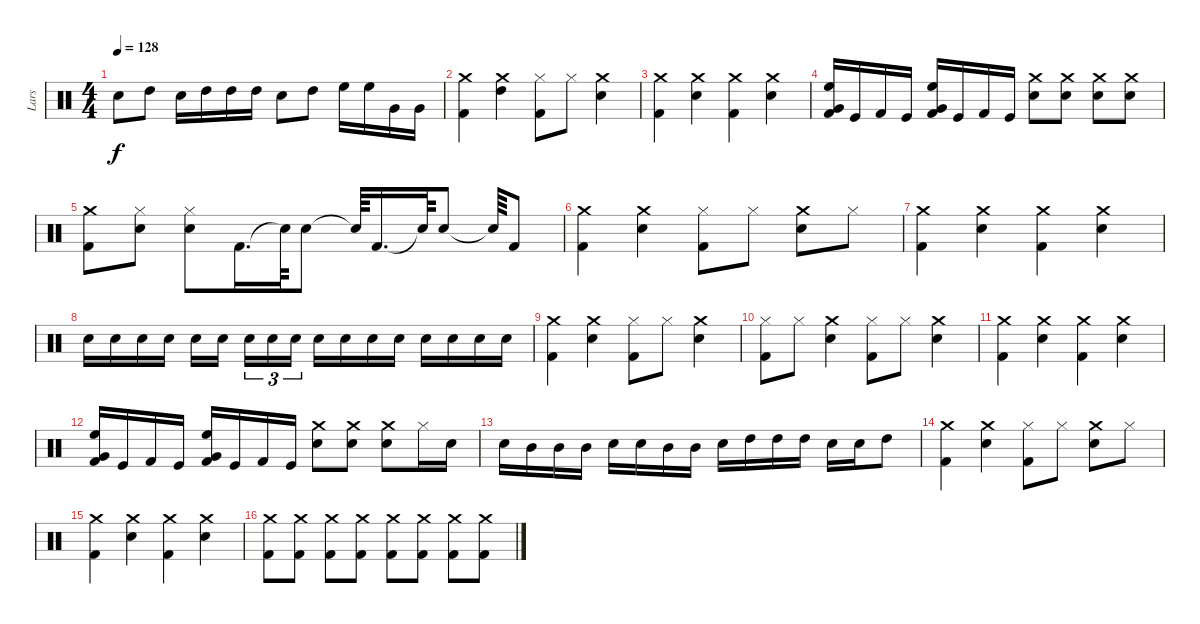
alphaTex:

\track ("Lars" "Lars") {instrument percussion}
\staff {score}
\articulation defaults
\ts (4 4)
\tempo 128
\clef neutral
\ks c "Snare (hit) 2".8{dy f} "High Tom (hit)".8 "Snare (hit) 2".16 "High Tom (hit)".16 "High Tom (hit)".16 "High Tom (hit)".16 "Snare (hit) 2".8 "High Tom (hit)".8 "High Floor Tom (hit)".16 "High Floor Tom (hit)".16 "Very Low Tom (hit)".16 "Very Low Tom (hit)".16
|
("Crash medium (hit)" "Kick (hit) 2").4 ("Crash medium (hit)" "High Tom (hit)").4 ("Kick (hit) 2" "Hi-Hat (closed)").8 "Hi-Hat (closed)".8 ("Crash medium (hit)" "Snare (hit) 2").4 |
("Kick (hit) 2" "Crash medium (hit)").4 ("Snare (hit) 2" "Crash medium (hit)").4 ("Kick (hit) 2" "Crash medium (hit)").4 ("Snare (hit) 2" "Crash medium (hit)").4 |
("Kick (hit) 2" "High Floor Tom (hit)" "Very Low Tom (hit)").16 "Kick (hit)".16 "Kick (hit) 2".16 "Kick (hit)".16 ("Kick (hit) 2" "High Floor Tom (hit)" "Very Low Tom (hit)").16 "Kick (hit)".16 "Kick (hit) 2".16 "Kick (hit)".16 ("Snare (hit) 2" "Crash medium (hit)").8 ("Snare (hit) 2" "Crash medium (hit)").8 ("Snare (hit) 2" "Crash medium (hit)").8 ("Snare (hit) 2" "Crash medium (hit)").8 |
("Kick (hit) 2" "Crash medium (hit)").8 ("Snare (hit) 2" "Hi-Hat (closed)").8 ("Hi-Hat (closed)" "Snare (hit) 2").8 "Kick (hit) 2".16{d} "Snare (hit)"{t}.64 "Snare (hit) 2".8 "Snare (hit)"{t}.64 "Kick (hit) 2".16{d} "Snare (hit)"{t}.64 "Snare (hit) 2".8 "Snare (hit)"{t}.64 "Kick (hit) 2".8 |
("Kick (hit) 2" "Crash medium (hit)").4 ("Snare (hit) 2" "Crash medium (hit)").4 ("Hi-Hat (closed)" "Kick (hit) 2").8 "Hi-Hat (closed)".8 ("Crash medium (hit)" "Snare (hit) 2").8 "Hi-Hat (closed)".8 |
("Kick (hit) 2" "Crash medium (hit)").4 ("Snare (hit) 2" "Crash medium (hit)").4 ("Kick (hit) 2" "Crash medium (hit)").4 ("Snare (hit) 2" "Crash medium (hit)").4 |
"Snare (hit) 2".16 "Snare (hit) 2".16 "Snare (hit) 2".16 "Snare (hit) 2".16 "Snare (hit) 2".16 "Snare (hit) 2".16 "Snare (hit) 2".16{tu (3 2)} "Snare (hit) 2".16{tu (3 2)} "Snare (hit) 2".16{tu (3 2)} "Snare (hit) 2".16 "Snare (hit) 2".16 "Snare (hit) 2".16 "Snare (hit) 2".16 "Snare (hit) 2".16 "Snare (hit) 2".16 "Snare (hit) 2".16 "Snare (hit) 2".16 |
("Kick (hit) 2" "Crash medium (hit)").4 ("Snare (hit) 2" "Crash medium (hit)").4 ("Hi-Hat (closed)" "Kick (hit) 2").8 "Hi-Hat (closed)".8 ("Crash medium (hit)" "Snare (hit) 2").4 |
("Kick (hit) 2" "Hi-Hat (closed)").8 "Hi-Hat (closed)".8 ("Crash medium (hit)" "Snare (hit) 2").4 ("Kick (hit) 2" "Hi-Hat (closed)").8 "Hi-Hat (closed)".8 ("Snare (hit) 2" "Crash medium (hit)").4 |
("Crash medium (hit)" "Kick (hit) 2").4 ("Crash medium (hit)" "Snare (hit) 2").4 ("Crash medium (hit)" "Kick (hit) 2").4 ("Crash medium (hit)" "Snare (hit) 2").4 |
("Kick (hit) 2" "High Floor Tom (hit)" "Very Low Tom (hit)").16 "Kick (hit)".16 "Kick (hit) 2".16 "Kick (hit)".16 ("Kick (hit) 2" "High Floor Tom (hit)" "Very Low Tom (hit)").16 "Kick (hit)".16 "Kick (hit) 2".16 "Kick (hit)".16 ("Crash medium (hit)" "Snare (hit) 2").8 ("Crash medium (hit)" "Snare (hit) 2").8 ("Crash medium (hit)" "Snare (hit) 2").8 "Hi-Hat (closed)".16 "Snare (hit) 2".16 |
"Snare (hit) 2".16 "Mid Tom (hit)".16 "Mid Tom (hit)".16 "Mid Tom (hit)".16 "Snare (hit) 2".16 "Snare (hit) 2".16 "Mid Tom (hit)".16 "Mid Tom (hit)".16 "Snare (hit) 2".16 "High Tom (hit)".16 "High Tom (hit)".16 "High Tom (hit)".16 "Snare (hit) 2".16 "Snare (hit) 2".16 "High Tom (hit)".8 |
("Crash medium (hit)" "Kick (hit) 2").4 ("Crash medium (hit)" "Snare (hit) 2").4 ("Kick (hit) 2" "Hi-Hat (closed)").8 "Hi-Hat (closed)".8 ("Crash medium (hit)" "Snare (hit) 2").8 "Hi-Hat (closed)".8 |
("Kick (hit) 2" "Crash medium (hit)").4 ("Snare (hit) 2" "Crash medium (hit)").4 ("Kick (hit) 2" "Crash medium (hit)").4 ("Snare (hit) 2" "Crash medium (hit)").4 |
("Kick (hit) 2" "Crash medium (hit)").8 ("Kick (hit) 2" "Crash medium (hit)").8 ("Kick (hit) 2" "Crash medium (hit)").8 ("Kick (hit) 2" "Crash medium (hit)").8 ("Kick (hit) 2" "Crash medium (hit)").8 ("Kick (hit) 2" "Crash medium (hit)").8 ("Kick (hit) 2" "Crash medium (hit)").8 ("Kick (hit) 2" "Crash medium (hit)").8
